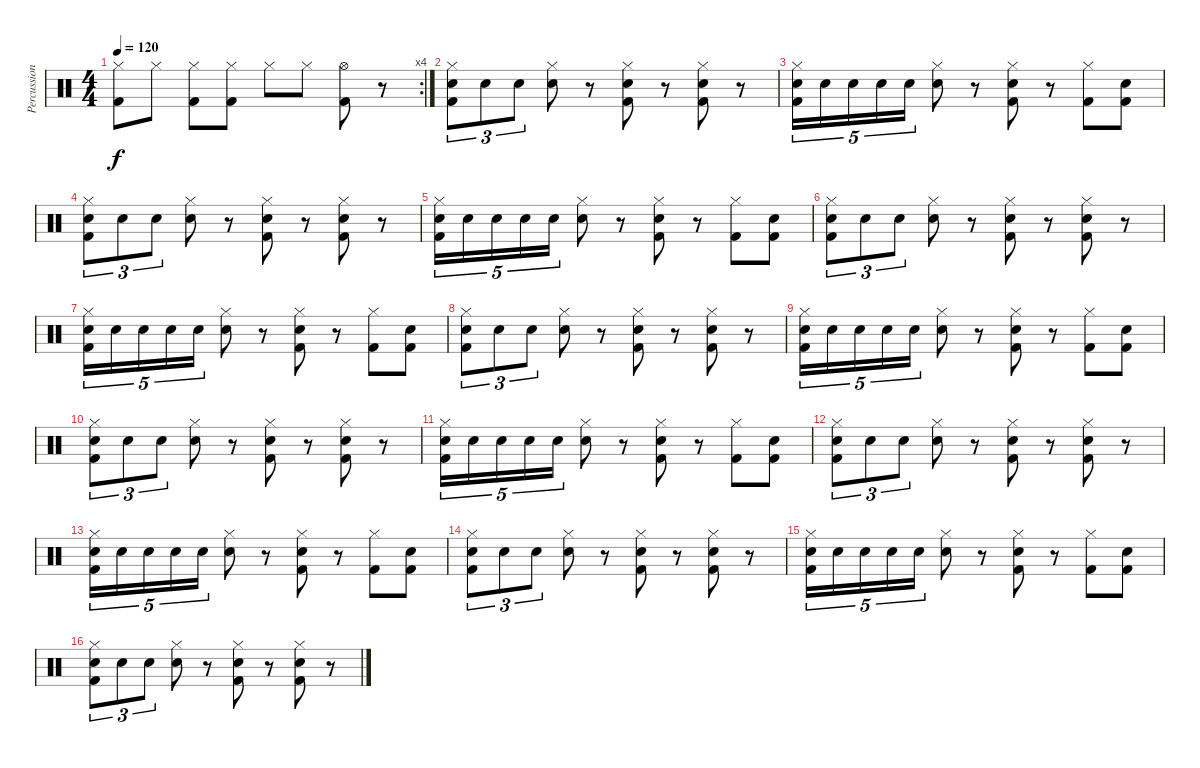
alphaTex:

\track ("Percussion" "Percussion") {instrument percussion}
\staff {score}
\articulation defaults
\rc 4
\ts (4 4)
\tempo 120
\clef neutral
\ks c
("Hi-Hat (closed)" "Kick (hit) 2").8{dy f} "Hi-Hat (closed)".8 ("Hi-Hat (closed)" "Kick (hit) 2").8 ("Hi-Hat (closed)" "Kick (hit) 2").8 "Hi-Hat (closed)".8 "Hi-Hat (closed)".8 ("Hi-Hat (open)" "Kick (hit) 2").8 r.8 |
("Hi-Hat (closed)" "Snare (hit) 2" "Kick (hit) 2").8{tu (3 2)} "Snare (hit) 2".8{tu (3 2)} "Snare (hit) 2".8{tu (3 2)} ("Hi-Hat (closed)" "Snare (hit) 2").8 r.8 ("Hi-Hat (closed)" "Snare (hit) 2" "Kick (hit) 2").8 r.8 ("Hi-Hat (closed)" "Snare (hit) 2" "Kick (hit) 2").8 r.8 |
("Hi-Hat (closed)" "Snare (hit) 2" "Kick (hit) 2").16{tu (5 4)} "Snare (hit) 2".16{tu (5 4)} "Snare (hit) 2".16{tu (5 4)} "Snare (hit) 2".16{tu (5 4)} "Snare (hit) 2".16{tu (5 4)} ("Hi-Hat (closed)" "Snare (hit) 2").8 r.8 ("Hi-Hat (closed)" "Snare (hit) 2" "Kick (hit) 2").8 r.8 ("Hi-Hat (closed)" "Kick (hit) 2").8 ("Snare (hit) 2" "Kick (hit) 2").8 |
("Hi-Hat (closed)" "Snare (hit) 2" "Kick (hit) 2").8{tu (3 2)} "Snare (hit) 2".8{tu (3 2)} "Snare (hit) 2".8{tu (3 2)} ("Hi-Hat (closed)" "Snare (hit) 2").8 r.8 ("Hi-Hat (closed)" "Snare (hit) 2" "Kick (hit) 2").8 r.8 ("Hi-Hat (closed)" "Snare (hit) 2" "Kick (hit) 2").8 r.8 |
("Hi-Hat (closed)" "Snare (hit) 2" "Kick (hit) 2").16{tu (5 4)} "Snare (hit) 2".16{tu (5 4)} "Snare (hit) 2".16{tu (5 4)} "Snare (hit) 2".16{tu (5 4)} "Snare (hit) 2".16{tu (5 4)} ("Hi-Hat (closed)" "Snare (hit) 2").8 r.8 ("Hi-Hat (closed)" "Snare (hit) 2" "Kick (hit) 2").8 r.8 ("Hi-Hat (closed)" "Kick (hit) 2").8 ("Snare (hit) 2" "Kick (hit) 2").8 |
("Hi-Hat (closed)" "Snare (hit) 2" "Kick (hit) 2").8{tu (3 2)} "Snare (hit) 2".8{tu (3 2)} "Snare (hit) 2".8{tu (3 2)} ("Hi-Hat (closed)" "Snare (hit) 2").8 r.8 ("Hi-Hat (closed)" "Snare (hit) 2" "Kick (hit) 2").8 r.8 ("Hi-Hat (closed)" "Snare (hit) 2" "Kick (hit) 2").8 r.8 |
("Hi-Hat (closed)" "Snare (hit) 2" "Kick (hit) 2").16{tu (5 4)} "Snare (hit) 2".16{tu (5 4)} "Snare (hit) 2".16{tu (5 4)} "Snare (hit) 2".16{tu (5 4)} "Snare (hit) 2".16{tu (5 4)} ("Hi-Hat (closed)" "Snare (hit) 2").8 r.8 ("Hi-Hat (closed)" "Snare (hit) 2" "Kick (hit) 2").8 r.8 ("Hi-Hat (closed)" "Kick (hit) 2").8 ("Snare (hit) 2" "Kick (hit) 2").8 |
("Hi-Hat (closed)" "Snare (hit) 2" "Kick (hit) 2").8{tu (3 2)} "Snare (hit) 2".8{tu (3 2)} "Snare (hit) 2".8{tu (3 2)} ("Hi-Hat (closed)" "Snare (hit) 2").8 r.8 ("Hi-Hat (closed)" "Snare (hit) 2" "Kick (hit) 2").8 r.8 ("Hi-Hat (closed)" "Snare (hit) 2" "Kick (hit) 2").8 r.8 |
("Hi-Hat (closed)" "Snare (hit) 2" "Kick (hit) 2").16{tu (5 4)} "Snare (hit) 2".16{tu (5 4)} "Snare (hit) 2".16{tu (5 4)} "Snare (hit) 2".16{tu (5 4)} "Snare (hit) 2".16{tu (5 4)} ("Hi-Hat (closed)" "Snare (hit) 2").8 r.8 ("Hi-Hat (closed)" "Snare (hit) 2" "Kick (hit) 2").8 r.8 ("Hi-Hat (closed)" "Kick (hit) 2").8 ("Snare (hit) 2" "Kick (hit) 2").8 |
("Hi-Hat (closed)" "Snare (hit) 2" "Kick (hit) 2").8{tu (3 2)} "Snare (hit) 2".8{tu (3 2)} "Snare (hit) 2".8{tu (3 2)} ("Hi-Hat (closed)" "Snare (hit) 2").8 r.8 ("Hi-Hat (closed)" "Snare (hit) 2" "Kick (hit) 2").8 r.8 ("Hi-Hat (closed)" "Snare (hit) 2" "Kick (hit) 2").8 r.8 |
("Hi-Hat (closed)" "Snare (hit) 2" "Kick (hit) 2").16{tu (5 4)} "Snare (hit) 2".16{tu (5 4)} "Snare (hit) 2".16{tu (5 4)} "Snare (hit) 2".16{tu (5 4)} "Snare (hit) 2".16{tu (5 4)} ("Hi-Hat (closed)" "Snare (hit) 2").8 r.8 ("Hi-Hat (closed)" "Snare (hit) 2" "Kick (hit) 2").8 r.8 ("Hi-Hat (closed)" "Kick (hit) 2").8 ("Snare (hit) 2" "Kick (hit) 2").8 |
("Hi-Hat (closed)" "Snare (hit) 2" "Kick (hit) 2").8{tu (3 2)} "Snare (hit) 2".8{tu (3 2)} "Snare (hit) 2".8{tu (3 2)} ("Hi-Hat (closed)" "Snare (hit) 2").8 r.8 ("Hi-Hat (closed)" "Snare (hit) 2" "Kick (hit) 2").8 r.8 ("Hi-Hat (closed)" "Snare (hit) 2" "Kick (hit) 2").8 r.8 |
("Hi-Hat (closed)" "Snare (hit) 2" "Kick (hit) 2").16{tu (5 4)} "Snare (hit) 2".16{tu (5 4)} "Snare (hit) 2".16{tu (5 4)} "Snare (hit) 2".16{tu (5 4)} "Snare (hit) 2".16{tu (5 4)} ("Hi-Hat (closed)" "Snare (hit) 2").8 r.8 ("Hi-Hat (closed)" "Snare (hit) 2" "Kick (hit) 2").8 r.8 ("Hi-Hat (closed)" "Kick (hit) 2").8 ("Snare (hit) 2" "Kick (hit) 2").8 |
("Hi-Hat (closed)" "Snare (hit) 2" "Kick (hit) 2").8{tu (3 2)} "Snare (hit) 2".8{tu (3 2)} "Snare (hit) 2".8{tu (3 2)} ("Hi-Hat (closed)" "Snare (hit) 2").8 r.8 ("Hi-Hat (closed)" "Snare (hit) 2" "Kick (hit) 2").8 r.8 ("Hi-Hat (closed)" "Snare (hit) 2" "Kick (hit) 2").8 r.8 |
("Hi-Hat (closed)" "Snare (hit) 2" "Kick (hit) 2").16{tu (5 4)} "Snare (hit) 2".16{tu (5 4)} "Snare (hit) 2".16{tu (5 4)} "Snare (hit) 2".16{tu (5 4)} "Snare (hit) 2".16{tu (5 4)} ("Hi-Hat (closed)" "Snare (hit) 2").8 r.8 ("Hi-Hat (closed)" "Snare (hit) 2" "Kick (hit) 2").8 r.8 ("Hi-Hat (closed)" "Kick (hit) 2").8 ("Snare (hit) 2" "Kick (hit) 2").8 |
("Hi-Hat (closed)" "Snare (hit) 2" "Kick (hit) 2").8{tu (3 2)} "Snare (hit) 2".8{tu (3 2)} "Snare (hit) 2".8{tu (3 2)} ("Hi-Hat (closed)" "Snare (hit) 2").8 r.8 ("Hi-Hat (closed)" "Snare (hit) 2" "Kick (hit) 2").8 r.8 ("Hi-Hat (closed)" "Snare (hit) 2" "Kick (hit) 2").8 r.8
